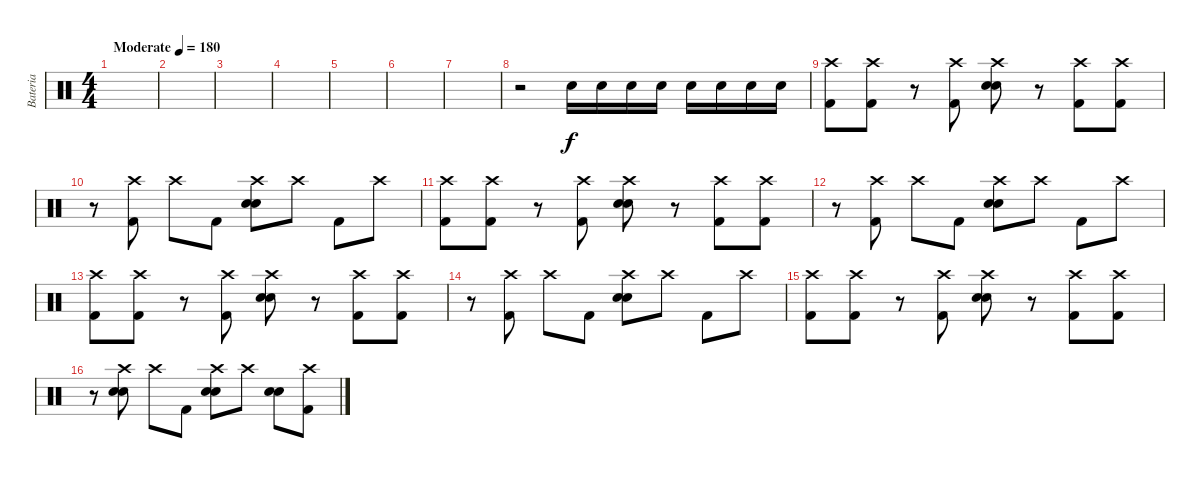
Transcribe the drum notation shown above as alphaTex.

\track ("Bateria" "Bateria") {instrument percussion}
\staff {score}
\articulation defaults
\ts (4 4)
\tempo (180 "Moderate")
\clef neutral
\ks c
|
|
|
|
|
|
|
r.2 "Electric Snare (hit)".16 "Electric Snare (hit)".16 "Electric Snare (hit)".16 "Electric Snare (hit)".16 "Electric Snare (hit)".16 "Electric Snare (hit)".16 "Electric Snare (hit)".16 "Electric Snare (hit)".16 |
("Crash high (hit)" "Kick (hit) 2").8 ("Crash high (hit)" "Kick (hit) 2").8 r.8 ("Crash high (hit)" "Kick (hit) 2").8 ("Crash high (hit)" "Snare (hit) 2" "Electric Snare (hit)").8 r.8 ("Crash high (hit)" "Kick (hit) 2").8 ("Crash high (hit)" "Kick (hit) 2").8 |
r.8 ("Crash high (hit)" "Kick (hit) 2").8 "Crash high (hit)".8 "Kick (hit) 2".8 ("Crash high (hit)" "Snare (hit) 2" "Electric Snare (hit)").8 "Crash high (hit)".8 "Kick (hit) 2".8 "Crash high (hit)".8 |
("Crash high (hit)" "Kick (hit) 2").8 ("Crash high (hit)" "Kick (hit) 2").8 r.8 ("Crash high (hit)" "Kick (hit) 2").8 ("Crash high (hit)" "Snare (hit) 2" "Electric Snare (hit)").8 r.8 ("Crash high (hit)" "Kick (hit) 2").8 ("Crash high (hit)" "Kick (hit) 2").8 |
r.8 ("Crash high (hit)" "Kick (hit) 2").8 "Crash high (hit)".8 "Kick (hit) 2".8 ("Crash high (hit)" "Snare (hit) 2" "Electric Snare (hit)").8 "Crash high (hit)".8 "Kick (hit) 2".8 "Crash high (hit)".8 |
("Crash high (hit)" "Kick (hit) 2").8 ("Crash high (hit)" "Kick (hit) 2").8 r.8 ("Crash high (hit)" "Kick (hit) 2").8 ("Crash high (hit)" "Snare (hit) 2" "Electric Snare (hit)").8 r.8 ("Crash high (hit)" "Kick (hit) 2").8 ("Crash high (hit)" "Kick (hit) 2").8 |
r.8 ("Crash high (hit)" "Kick (hit) 2").8 "Crash high (hit)".8 "Kick (hit) 2".8 ("Crash high (hit)" "Snare (hit) 2" "Electric Snare (hit)").8 "Crash high (hit)".8 "Kick (hit) 2".8 "Crash high (hit)".8 |
("Crash high (hit)" "Kick (hit) 2").8 ("Crash high (hit)" "Kick (hit) 2").8 r.8 ("Crash high (hit)" "Kick (hit) 2").8 ("Crash high (hit)" "Snare (hit) 2" "Electric Snare (hit)").8 r.8 ("Crash high (hit)" "Kick (hit) 2").8 ("Crash high (hit)" "Kick (hit) 2").8 |
r.8 ("Crash high (hit)" "Snare (hit) 2" "Electric Snare (hit)").8 "Crash high (hit)".8 "Kick (hit) 2".8 ("Crash high (hit)" "Snare (hit) 2" "Electric Snare (hit)").8 "Crash high (hit)".8 ("Snare (hit) 2" "Electric Snare (hit)").8 ("Crash high (hit)" "Kick (hit) 2").8
